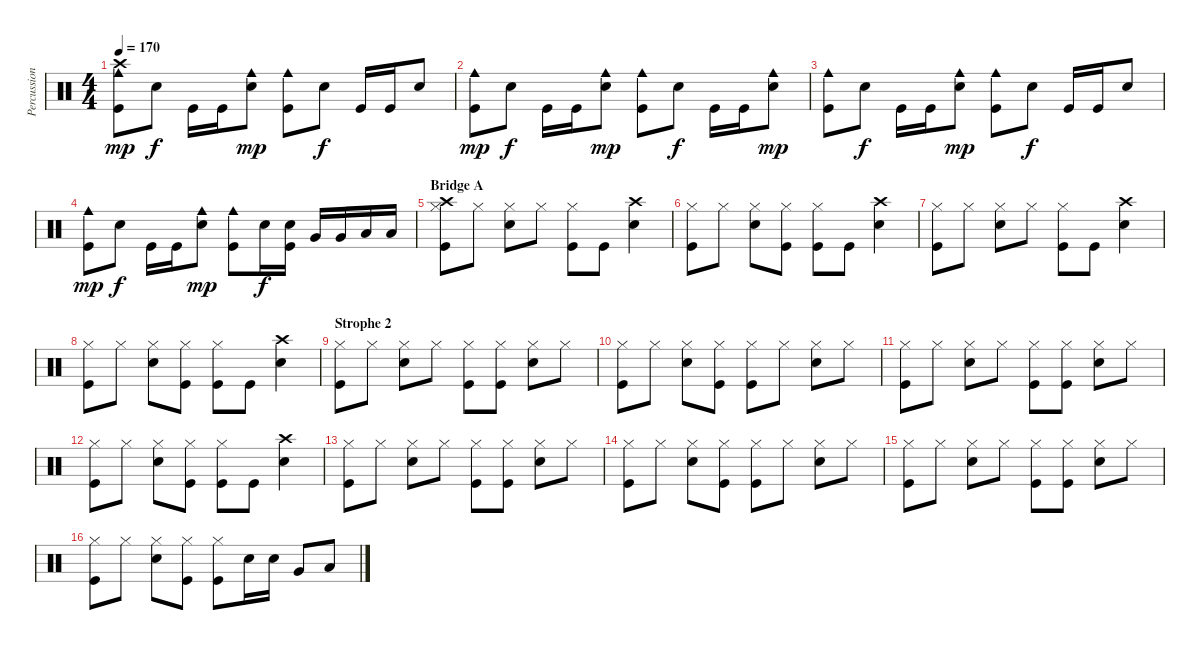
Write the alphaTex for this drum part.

\track ("Percussion" "Percussion") {instrument percussion}
\staff {score}
\articulation defaults
\ts (4 4)
\tempo 170
\clef neutral
\ks c
("Cowbell medium (hit)" "Crash high (hit)" "Kick (hit)").8{dy mp} "Electric Snare (hit)".8{dy f} "Kick (hit)".16 "Kick (hit)".16 ("Cowbell medium (hit)" "Electric Snare (hit)").8{dy mp} ("Cowbell medium (hit)" "Kick (hit)").8 "Electric Snare (hit)".8{dy f} "Kick (hit)".16 "Kick (hit)".16 "Electric Snare (hit)".8 |
("Cowbell medium (hit)" "Kick (hit)").8{dy mp} "Electric Snare (hit)".8{dy f} "Kick (hit)".16 "Kick (hit)".16 ("Cowbell medium (hit)" "Electric Snare (hit)").8{dy mp} ("Cowbell medium (hit)" "Kick (hit)").8 "Electric Snare (hit)".8{dy f} "Kick (hit)".16 "Kick (hit)".16 ("Cowbell medium (hit)" "Electric Snare (hit)").8{dy mp} |
("Cowbell medium (hit)" "Kick (hit)").8 "Electric Snare (hit)".8{dy f} "Kick (hit)".16 "Kick (hit)".16 ("Cowbell medium (hit)" "Electric Snare (hit)").8{dy mp} ("Cowbell medium (hit)" "Kick (hit)").8 "Electric Snare (hit)".8{dy f} "Kick (hit)".16 "Kick (hit)".16 "Electric Snare (hit)".8 |
("Cowbell medium (hit)" "Kick (hit)").8{dy mp} "Electric Snare (hit)".8{dy f} "Kick (hit)".16 "Kick (hit)".16 ("Cowbell medium (hit)" "Electric Snare (hit)").8{dy mp} ("Cowbell medium (hit)" "Kick (hit)").8 "Electric Snare (hit)".16{dy f} ("Electric Snare (hit)" "Kick (hit)").16 "Very Low Tom (hit)".16 "Very Low Tom (hit)".16 "Low Floor Tom (hit)".16 "Low Floor Tom (hit)".16 |
\section ("" "Bridge A")
("Hi-Hat (closed)" "Crash high (hit)" "Kick (hit)").8 "Hi-Hat (closed)".8 ("Hi-Hat (closed)" "Electric Snare (hit)").8 "Hi-Hat (closed)".8 ("Hi-Hat (closed)" "Kick (hit)").8 "Kick (hit)".8 ("Crash high (hit)" "Electric Snare (hit)").4 |
("Hi-Hat (closed)" "Kick (hit)").8 "Hi-Hat (closed)".8 ("Hi-Hat (closed)" "Electric Snare (hit)").8 ("Hi-Hat (closed)" "Kick (hit)").8 ("Hi-Hat (closed)" "Kick (hit)").8 "Kick (hit)".8 ("Crash high (hit)" "Electric Snare (hit)").4 |
("Hi-Hat (closed)" "Kick (hit)").8 "Hi-Hat (closed)".8 ("Hi-Hat (closed)" "Electric Snare (hit)").8 "Hi-Hat (closed)".8 ("Hi-Hat (closed)" "Kick (hit)").8 "Kick (hit)".8 ("Crash high (hit)" "Electric Snare (hit)").4 |
("Hi-Hat (closed)" "Kick (hit)").8 "Hi-Hat (closed)".8 ("Hi-Hat (closed)" "Electric Snare (hit)").8 ("Hi-Hat (closed)" "Kick (hit)").8 ("Hi-Hat (closed)" "Kick (hit)").8 "Kick (hit)".8 ("Crash high (hit)" "Electric Snare (hit)").4 |
\section ("" "Strophe 2")
("Hi-Hat (closed)" "Kick (hit)").8 "Hi-Hat (closed)".8 ("Hi-Hat (closed)" "Electric Snare (hit)").8 "Hi-Hat (closed)".8 ("Hi-Hat (closed)" "Kick (hit)").8 ("Hi-Hat (closed)" "Kick (hit)").8 ("Hi-Hat (closed)" "Electric Snare (hit)").8 "Hi-Hat (closed)".8 |
("Hi-Hat (closed)" "Kick (hit)").8 "Hi-Hat (closed)".8 ("Hi-Hat (closed)" "Electric Snare (hit)").8 ("Hi-Hat (closed)" "Kick (hit)").8 ("Hi-Hat (closed)" "Kick (hit)").8 "Hi-Hat (closed)".8 ("Hi-Hat (closed)" "Electric Snare (hit)").8 "Hi-Hat (closed)".8 |
("Hi-Hat (closed)" "Kick (hit)").8 "Hi-Hat (closed)".8 ("Hi-Hat (closed)" "Electric Snare (hit)").8 "Hi-Hat (closed)".8 ("Hi-Hat (closed)" "Kick (hit)").8 ("Hi-Hat (closed)" "Kick (hit)").8 ("Hi-Hat (closed)" "Electric Snare (hit)").8 "Hi-Hat (closed)".8 |
("Hi-Hat (closed)" "Kick (hit)").8 "Hi-Hat (closed)".8 ("Hi-Hat (closed)" "Electric Snare (hit)").8 ("Hi-Hat (closed)" "Kick (hit)").8 ("Hi-Hat (closed)" "Kick (hit)").8 "Kick (hit)".8 ("Crash high (hit)" "Electric Snare (hit)").4 |
("Hi-Hat (closed)" "Kick (hit)").8 "Hi-Hat (closed)".8 ("Hi-Hat (closed)" "Electric Snare (hit)").8 "Hi-Hat (closed)".8 ("Hi-Hat (closed)" "Kick (hit)").8 ("Hi-Hat (closed)" "Kick (hit)").8 ("Hi-Hat (closed)" "Electric Snare (hit)").8 "Hi-Hat (closed)".8 |
("Hi-Hat (closed)" "Kick (hit)").8 "Hi-Hat (closed)".8 ("Hi-Hat (closed)" "Electric Snare (hit)").8 ("Hi-Hat (closed)" "Kick (hit)").8 ("Hi-Hat (closed)" "Kick (hit)").8 "Hi-Hat (closed)".8 ("Hi-Hat (closed)" "Electric Snare (hit)").8 "Hi-Hat (closed)".8 |
("Hi-Hat (closed)" "Kick (hit)").8 "Hi-Hat (closed)".8 ("Hi-Hat (closed)" "Electric Snare (hit)").8 "Hi-Hat (closed)".8 ("Hi-Hat (closed)" "Kick (hit)").8 ("Hi-Hat (closed)" "Kick (hit)").8 ("Hi-Hat (closed)" "Electric Snare (hit)").8 "Hi-Hat (closed)".8 |
("Hi-Hat (closed)" "Kick (hit)").8 "Hi-Hat (closed)".8 ("Hi-Hat (closed)" "Electric Snare (hit)").8 ("Hi-Hat (closed)" "Kick (hit)").8 ("Hi-Hat (closed)" "Kick (hit)").8 "Electric Snare (hit)".16 "Electric Snare (hit)".16 "Very Low Tom (hit)".8 "Low Floor Tom (hit)".8
